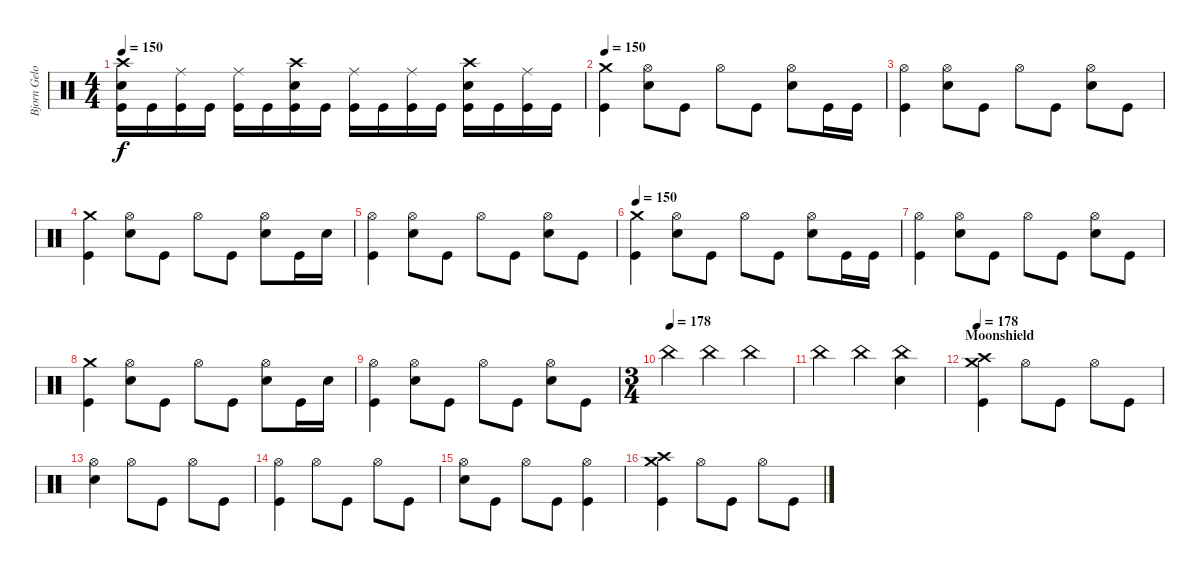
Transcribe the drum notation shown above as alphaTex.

\track ("Bjorn Gelotte-Drum" "Bjorn Gelo") {instrument percussion}
\staff {score}
\articulation defaults
\ts (4 4)
\tempo 150
\clef neutral
\ks c
("Crash high (hit)" "Electric Snare (hit)" "Kick (hit)").16{dy f} "Kick (hit)".16 ("Ride (middle)" "Kick (hit)").16 "Kick (hit)".16 ("Ride (middle)" "Kick (hit)").16 "Kick (hit)".16 ("Crash high (hit)" "Electric Snare (hit)" "Kick (hit)").16 "Kick (hit)".16 ("Ride (middle)" "Kick (hit)").16 "Kick (hit)".16 ("Ride (middle)" "Kick (hit)").16 "Kick (hit)".16 ("Crash high (hit)" "Electric Snare (hit)" "Kick (hit)").16 "Kick (hit)".16 ("Ride (middle)" "Kick (hit)").16 "Kick (hit)".16 |
\tempo 150
("Crash medium (hit)" "Kick (hit)").4 ("Hi-Hat (open)" "Electric Snare (hit)").8 "Kick (hit)".8 "Hi-Hat (open)".8 "Kick (hit)".8 ("Hi-Hat (open)" "Electric Snare (hit)").8 "Kick (hit)".16 "Kick (hit)".16 |
("Hi-Hat (open)" "Kick (hit)").4 ("Hi-Hat (open)" "Electric Snare (hit)").8 "Kick (hit)".8 "Hi-Hat (open)".8 "Kick (hit)".8 ("Hi-Hat (open)" "Electric Snare (hit)").8 "Kick (hit)".8 |
("Crash medium (hit)" "Kick (hit)").4 ("Hi-Hat (open)" "Electric Snare (hit)").8 "Kick (hit)".8 "Hi-Hat (open)".8 "Kick (hit)".8 ("Hi-Hat (open)" "Electric Snare (hit)").8 "Kick (hit)".16 "Electric Snare (hit)".16 |
("Hi-Hat (open)" "Kick (hit)").4 ("Hi-Hat (open)" "Electric Snare (hit)").8 "Kick (hit)".8 "Hi-Hat (open)".8 "Kick (hit)".8 ("Hi-Hat (open)" "Electric Snare (hit)").8 "Kick (hit)".8 |
\tempo 150
("Crash medium (hit)" "Kick (hit)").4 ("Hi-Hat (open)" "Electric Snare (hit)").8 "Kick (hit)".8 "Hi-Hat (open)".8 "Kick (hit)".8 ("Hi-Hat (open)" "Electric Snare (hit)").8 "Kick (hit)".16 "Kick (hit)".16 |
("Hi-Hat (open)" "Kick (hit)").4 ("Hi-Hat (open)" "Electric Snare (hit)").8 "Kick (hit)".8 "Hi-Hat (open)".8 "Kick (hit)".8 ("Hi-Hat (open)" "Electric Snare (hit)").8 "Kick (hit)".8 |
("Crash medium (hit)" "Kick (hit)").4 ("Hi-Hat (open)" "Electric Snare (hit)").8 "Kick (hit)".8 "Hi-Hat (open)".8 "Kick (hit)".8 ("Hi-Hat (open)" "Electric Snare (hit)").8 "Kick (hit)".16 "Electric Snare (hit)".16 |
("Hi-Hat (open)" "Kick (hit)").4 ("Hi-Hat (open)" "Electric Snare (hit)").8 "Kick (hit)".8 "Hi-Hat (open)".8 "Kick (hit)".8 ("Hi-Hat (open)" "Electric Snare (hit)").8 "Kick (hit)".8 |
\ts (3 4)
\tempo (178)
"China (hit)".4 "China (hit)".4 "China (hit)".4 |
"China (hit)".4 "China (hit)".4 ("China (hit)" "Electric Snare (hit)").4 |
\section ("" "Moonshield")
\tempo 178
("Kick (hit)" "Crash high (hit)" "Crash medium (hit)").4 "Hi-Hat (open)".8 "Kick (hit)".8 "Hi-Hat (open)".8 "Kick (hit)".8 |
("Electric Snare (hit)" "Hi-Hat (open)").4 "Hi-Hat (open)".8 "Kick (hit)".8 "Hi-Hat (open)".8 "Kick (hit)".8 |
("Kick (hit)" "Hi-Hat (open)").4 "Hi-Hat (open)".8 "Kick (hit)".8 "Hi-Hat (open)".8 "Kick (hit)".8 |
("Electric Snare (hit)" "Hi-Hat (open)").8 "Kick (hit)".8 "Hi-Hat (open)".8 "Kick (hit)".8 ("Kick (hit)" "Hi-Hat (open)").4 |
("Kick (hit)" "Crash high (hit)" "Crash medium (hit)").4 "Hi-Hat (open)".8 "Kick (hit)".8 "Hi-Hat (open)".8 "Kick (hit)".8
